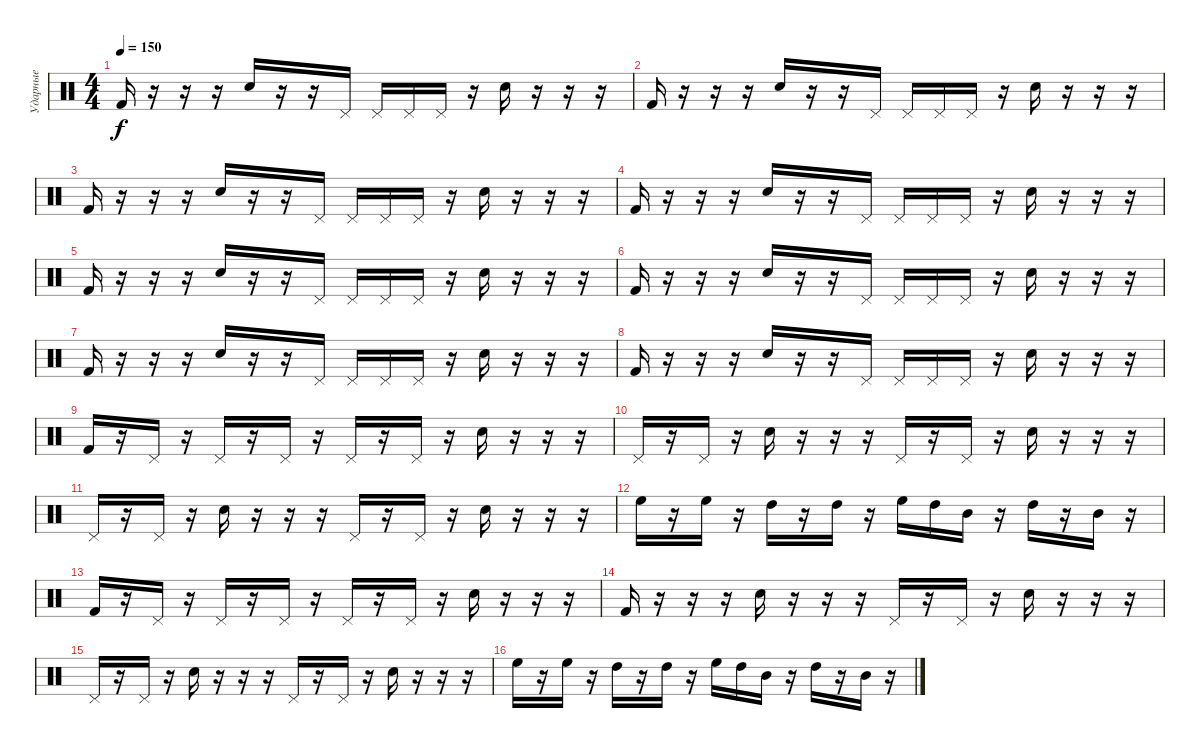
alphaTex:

\track ("Ударные" "Ударные") {instrument percussion}
\staff {score}
\articulation defaults
\ts (4 4)
\tempo 150
\clef neutral
\ks c "Kick (hit) 2".16{dy f}
r.16 r.16 r.16 "Electric Snare (hit)".16 r.16 r.16 "Pedal Hi-Hat (hit)".16 "Pedal Hi-Hat (hit)".16 "Pedal Hi-Hat (hit)".16 "Pedal Hi-Hat (hit)".16 r.16 "Electric Snare (hit)".16 r.16 r.16 r.16 |
"Kick (hit) 2".16 r.16 r.16 r.16 "Electric Snare (hit)".16 r.16 r.16 "Pedal Hi-Hat (hit)".16 "Pedal Hi-Hat (hit)".16 "Pedal Hi-Hat (hit)".16 "Pedal Hi-Hat (hit)".16 r.16 "Electric Snare (hit)".16 r.16 r.16 r.16 |
"Kick (hit) 2".16 r.16 r.16 r.16 "Electric Snare (hit)".16 r.16 r.16 "Pedal Hi-Hat (hit)".16 "Pedal Hi-Hat (hit)".16 "Pedal Hi-Hat (hit)".16 "Pedal Hi-Hat (hit)".16 r.16 "Electric Snare (hit)".16 r.16 r.16 r.16 |
"Kick (hit) 2".16 r.16 r.16 r.16 "Electric Snare (hit)".16 r.16 r.16 "Pedal Hi-Hat (hit)".16 "Pedal Hi-Hat (hit)".16 "Pedal Hi-Hat (hit)".16 "Pedal Hi-Hat (hit)".16 r.16 "Electric Snare (hit)".16 r.16 r.16 r.16 |
"Kick (hit) 2".16 r.16 r.16 r.16 "Electric Snare (hit)".16 r.16 r.16 "Pedal Hi-Hat (hit)".16 "Pedal Hi-Hat (hit)".16 "Pedal Hi-Hat (hit)".16 "Pedal Hi-Hat (hit)".16 r.16 "Electric Snare (hit)".16 r.16 r.16 r.16 |
"Kick (hit) 2".16 r.16 r.16 r.16 "Electric Snare (hit)".16 r.16 r.16 "Pedal Hi-Hat (hit)".16 "Pedal Hi-Hat (hit)".16 "Pedal Hi-Hat (hit)".16 "Pedal Hi-Hat (hit)".16 r.16 "Electric Snare (hit)".16 r.16 r.16 r.16 |
"Kick (hit) 2".16 r.16 r.16 r.16 "Electric Snare (hit)".16 r.16 r.16 "Pedal Hi-Hat (hit)".16 "Pedal Hi-Hat (hit)".16 "Pedal Hi-Hat (hit)".16 "Pedal Hi-Hat (hit)".16 r.16 "Electric Snare (hit)".16 r.16 r.16 r.16 |
"Kick (hit) 2".16 r.16 r.16 r.16 "Electric Snare (hit)".16 r.16 r.16 "Pedal Hi-Hat (hit)".16 "Pedal Hi-Hat (hit)".16 "Pedal Hi-Hat (hit)".16 "Pedal Hi-Hat (hit)".16 r.16 "Electric Snare (hit)".16 r.16 r.16 r.16 |
"Kick (hit) 2".16 r.16 "Pedal Hi-Hat (hit)".16 r.16 "Pedal Hi-Hat (hit)".16 r.16 "Pedal Hi-Hat (hit)".16 r.16 "Pedal Hi-Hat (hit)".16 r.16 "Pedal Hi-Hat (hit)".16 r.16 "Electric Snare (hit)".16 r.16 r.16 r.16 |
"Pedal Hi-Hat (hit)".16 r.16 "Pedal Hi-Hat (hit)".16 r.16 "Electric Snare (hit)".16 r.16 r.16 r.16 "Pedal Hi-Hat (hit)".16 r.16 "Pedal Hi-Hat (hit)".16 r.16 "Electric Snare (hit)".16 r.16 r.16 r.16 |
"Pedal Hi-Hat (hit)".16 r.16 "Pedal Hi-Hat (hit)".16 r.16 "Electric Snare (hit)".16 r.16 r.16 r.16 "Pedal Hi-Hat (hit)".16 r.16 "Pedal Hi-Hat (hit)".16 r.16 "Electric Snare (hit)".16 r.16 r.16 r.16 |
"High Floor Tom (hit)".16 r.16 "High Floor Tom (hit)".16 r.16 "High Tom (hit)".16 r.16 "High Tom (hit)".16 r.16 "High Floor Tom (hit)".16 "High Tom (hit)".16 "Mid Tom (hit)".16 r.16 "High Tom (hit)".16 r.16 "Mid Tom (hit)".16 r.16 |
"Kick (hit) 2".16 r.16 "Pedal Hi-Hat (hit)".16 r.16 "Pedal Hi-Hat (hit)".16 r.16 "Pedal Hi-Hat (hit)".16 r.16 "Pedal Hi-Hat (hit)".16 r.16 "Pedal Hi-Hat (hit)".16 r.16 "Electric Snare (hit)".16 r.16 r.16 r.16 |
"Kick (hit) 2".16 r.16 r.16 r.16 "Electric Snare (hit)".16 r.16 r.16 r.16 "Pedal Hi-Hat (hit)".16 r.16 "Pedal Hi-Hat (hit)".16 r.16 "Electric Snare (hit)".16 r.16 r.16 r.16 |
"Pedal Hi-Hat (hit)".16 r.16 "Pedal Hi-Hat (hit)".16 r.16 "Electric Snare (hit)".16 r.16 r.16 r.16 "Pedal Hi-Hat (hit)".16 r.16 "Pedal Hi-Hat (hit)".16 r.16 "Electric Snare (hit)".16 r.16 r.16 r.16 |
"High Floor Tom (hit)".16 r.16 "High Floor Tom (hit)".16 r.16 "High Tom (hit)".16 r.16 "High Tom (hit)".16 r.16 "High Floor Tom (hit)".16 "High Tom (hit)".16 "Mid Tom (hit)".16 r.16 "High Tom (hit)".16 r.16 "Mid Tom (hit)".16 r.16
